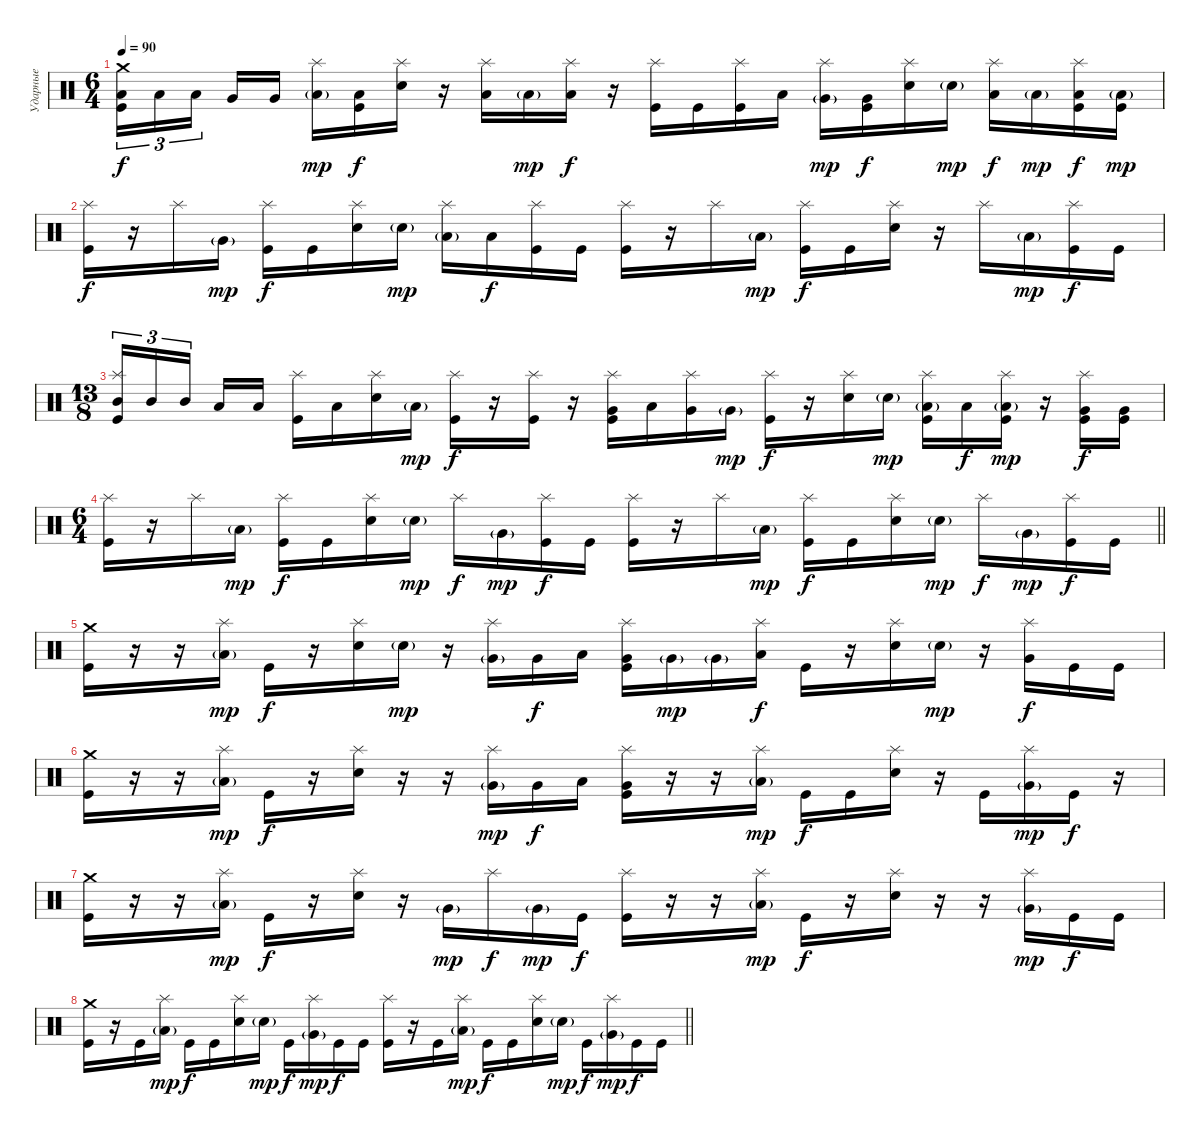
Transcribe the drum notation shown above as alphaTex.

\track ("Ударные" "Ударные") {instrument percussion}
\staff {score}
\articulation defaults
\ts (6 4)
\tempo 90
\clef neutral
\ks c
("Crash medium (hit)" "Low Tom (hit)" "Kick (hit)").16{tu (3 2) dy f} "Low Tom (hit)".16{tu (3 2)} "Low Tom (hit)".16{tu (3 2) beam splitsecondary} "Very Low Tom (hit)".16 "Very Low Tom (hit)".16 ("Splash (hit)" "Low Floor Tom (hit)"{g}).16{dy mp} ("Low Floor Tom (hit)" "Kick (hit)").16{dy f} ("Splash (hit)" "Electric Snare (hit)").16 r.16 ("Splash (hit)" "Low Floor Tom (hit)").16 "Low Floor Tom (hit)"{g}.16{dy mp} ("Splash (hit)" "Low Floor Tom (hit)").16{dy f} r.16 ("Splash (hit)" "Kick (hit)").16 "Kick (hit)".16 ("Splash (hit)" "Kick (hit)").16 "Low Tom (hit)".16 ("Splash (hit)" "Very Low Tom (hit)"{g}).16{dy mp} ("Very Low Tom (hit)" "Kick (hit)").16{dy f} ("Splash (hit)" "Electric Snare (hit)").16 "Electric Snare (hit)"{g}.16{dy mp} ("Splash (hit)" "Low Floor Tom (hit)").16{dy f} "Low Floor Tom (hit)"{g}.16{dy mp} ("Splash (hit)" "Low Floor Tom (hit)" "Kick (hit)").16{dy f} ("Low Floor Tom (hit)"{g} "Kick (hit)").16{dy mp} |
("Splash (hit)" "Kick (hit)").16{dy f} r.16 "Splash (hit)".16 "Very Low Tom (hit)"{g}.16{dy mp} ("Splash (hit)" "Kick (hit)").16{dy f} "Kick (hit)".16 ("Splash (hit)" "Electric Snare (hit)").16 "Electric Snare (hit)"{g}.16{dy mp} ("Splash (hit)" "Low Floor Tom (hit)"{g}).16 "Low Floor Tom (hit)".16{dy f} ("Splash (hit)" "Kick (hit)").16 "Kick (hit)".16 ("Splash (hit)" "Kick (hit)").16 r.16 "Splash (hit)".16 "Low Floor Tom (hit)"{g}.16{dy mp} ("Splash (hit)" "Kick (hit)").16{dy f} "Kick (hit)".16 ("Splash (hit)" "Electric Snare (hit)").16 r.16 "Splash (hit)".16 "Low Floor Tom (hit)"{g}.16{dy mp} ("Splash (hit)" "Kick (hit)").16{dy f} "Kick (hit)".16 |
\ts (13 8)
("Splash (hit)" "Mid Tom (hit)" "Kick (hit)").16{tu (3 2)} "Mid Tom (hit)".16{tu (3 2)} "Mid Tom (hit)".16{tu (3 2)} "Low Tom (hit)".16 "Low Tom (hit)".16 ("Splash (hit)" "Kick (hit)").16 "Low Tom (hit)".16 ("Splash (hit)" "Electric Snare (hit)").16 "Low Tom (hit)"{g}.16{dy mp} ("Splash (hit)" "Kick (hit)").16{dy f} r.16 ("Splash (hit)" "Kick (hit)").16 r.16 ("Splash (hit)" "Very Low Tom (hit)" "Kick (hit)").16 "Low Floor Tom (hit)".16 ("Splash (hit)" "Very Low Tom (hit)").16 "Very Low Tom (hit)"{g}.16{dy mp} ("Splash (hit)" "Kick (hit)").16{dy f} r.16 ("Splash (hit)" "Electric Snare (hit)").16 "Electric Snare (hit)"{g}.16{dy mp} ("Splash (hit)" "Low Tom (hit)"{g} "Kick (hit)").16 "Low Tom (hit)".16{dy f} ("Splash (hit)" "Low Tom (hit)"{g} "Kick (hit)").16{dy mp} r.16 ("Splash (hit)" "Very Low Tom (hit)" "Kick (hit)").16{dy f} ("Very Low Tom (hit)" "Kick (hit)").16 |
\ts (6 4)
\barLineRight lightlight
("Splash (hit)" "Kick (hit)").16 r.16 "Splash (hit)".16 "Low Floor Tom (hit)"{g}.16{dy mp} ("Splash (hit)" "Kick (hit)").16{dy f} "Kick (hit)".16 ("Splash (hit)" "Electric Snare (hit)").16 "Electric Snare (hit)"{g}.16{dy mp} "Splash (hit)".16{dy f} "Very Low Tom (hit)"{g}.16{dy mp} ("Splash (hit)" "Kick (hit)").16{dy f} "Kick (hit)".16 ("Splash (hit)" "Kick (hit)").16 r.16 "Splash (hit)".16 "Low Floor Tom (hit)"{g}.16{dy mp} ("Splash (hit)" "Kick (hit)").16{dy f} "Kick (hit)".16 ("Splash (hit)" "Electric Snare (hit)").16 "Electric Snare (hit)"{g}.16{dy mp} "Splash (hit)".16{dy f} "Very Low Tom (hit)"{g}.16{dy mp} ("Splash (hit)" "Kick (hit)").16{dy f} "Kick (hit)".16 |
("Crash medium (hit)" "Kick (hit)").16 r.16 r.16 ("Splash (hit)" "Low Floor Tom (hit)"{g}).16{dy mp} "Kick (hit)".16{dy f} r.16 ("Splash (hit)" "Electric Snare (hit)").16 "Electric Snare (hit)"{g}.16{dy mp} r.16 ("Splash (hit)" "Very Low Tom (hit)"{g}).16 "Very Low Tom (hit)".16{dy f} "Low Tom (hit)".16 ("Splash (hit)" "Very Low Tom (hit)" "Kick (hit)").16 "Very Low Tom (hit)"{g}.16{dy mp} "Very Low Tom (hit)"{g}.16 ("Splash (hit)" "Low Floor Tom (hit)").16{dy f} "Kick (hit)".16 r.16 ("Splash (hit)" "Electric Snare (hit)").16 "Electric Snare (hit)"{g}.16{dy mp} r.16 ("Splash (hit)" "Very Low Tom (hit)").16{dy f} "Kick (hit)".16 "Kick (hit)".16 |
("Crash medium (hit)" "Kick (hit)").16 r.16 r.16 ("Splash (hit)" "Low Floor Tom (hit)"{g}).16{dy mp} "Kick (hit)".16{dy f} r.16 ("Splash (hit)" "Electric Snare (hit)").16 r.16 r.16 ("Splash (hit)" "Very Low Tom (hit)"{g}).16{dy mp} "Very Low Tom (hit)".16{dy f} "Low Tom (hit)".16 ("Splash (hit)" "Very Low Tom (hit)" "Kick (hit)").16 r.16 r.16 ("Splash (hit)" "Low Floor Tom (hit)"{g}).16{dy mp} "Kick (hit)".16{dy f} "Kick (hit)".16 ("Splash (hit)" "Electric Snare (hit)").16 r.16 "Kick (hit)".16 ("Splash (hit)" "Very Low Tom (hit)"{g}).16{dy mp} "Kick (hit)".16{dy f} r.16 |
("Crash medium (hit)" "Kick (hit)").16 r.16 r.16 ("Splash (hit)" "Low Floor Tom (hit)"{g}).16{dy mp} "Kick (hit)".16{dy f} r.16 ("Splash (hit)" "Electric Snare (hit)").16 r.16 "Very Low Tom (hit)"{g}.16{dy mp} "Splash (hit)".16{dy f} "Very Low Tom (hit)"{g}.16{dy mp} "Kick (hit)".16{dy f} ("Splash (hit)" "Kick (hit)").16 r.16 r.16 ("Splash (hit)" "Low Floor Tom (hit)"{g}).16{dy mp} "Kick (hit)".16{dy f} r.16 ("Splash (hit)" "Electric Snare (hit)").16 r.16 r.16 ("Splash (hit)" "Very Low Tom (hit)"{g}).16{dy mp} "Kick (hit)".16{dy f} "Kick (hit)".16 |
\barLineRight lightlight
("Crash medium (hit)" "Kick (hit)").16 r.16 "Kick (hit)".16 ("Splash (hit)" "Low Floor Tom (hit)"{g}).16{dy mp} "Kick (hit)".16{dy f} "Kick (hit)".16 ("Splash (hit)" "Electric Snare (hit)").16 "Electric Snare (hit)"{g}.16{dy mp} "Kick (hit)".16{dy f} ("Splash (hit)" "Very Low Tom (hit)"{g}).16{dy mp} "Kick (hit)".16{dy f} "Kick (hit)".16 ("Splash (hit)" "Kick (hit)").16 r.16 "Kick (hit)".16 ("Splash (hit)" "Low Floor Tom (hit)"{g}).16{dy mp} "Kick (hit)".16{dy f} "Kick (hit)".16 ("Splash (hit)" "Electric Snare (hit)").16 "Electric Snare (hit)"{g}.16{dy mp} "Kick (hit)".16{dy f} ("Splash (hit)" "Very Low Tom (hit)"{g}).16{dy mp} "Kick (hit)".16{dy f} "Kick (hit)".16
